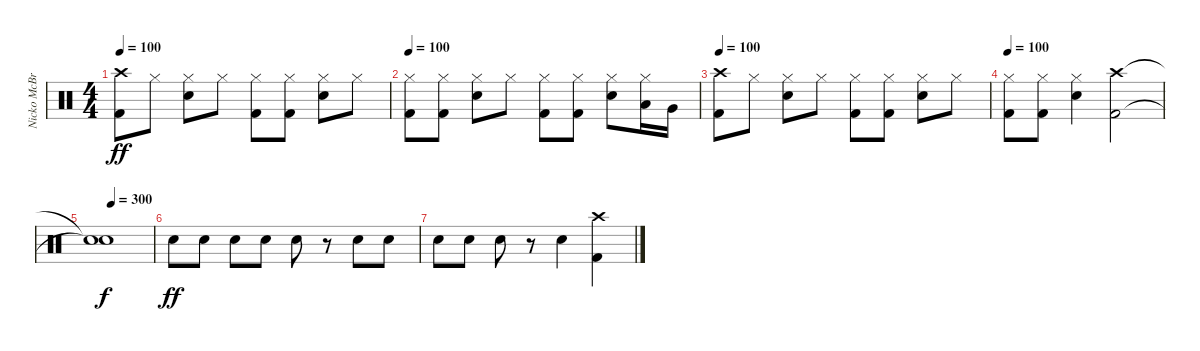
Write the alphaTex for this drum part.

\track ("Nicko McBrain" "Nicko McBr") {instrument percussion}
\staff {score}
\articulation defaults
\ts (4 4)
\tempo 100
\clef neutral
\ks c
("Kick (hit) 2" "Crash high (hit)").8{dy ff} "Hi-Hat (closed)".8 ("Snare (hit) 2" "Hi-Hat (closed)").8 "Hi-Hat (closed)".8 ("Kick (hit) 2" "Hi-Hat (closed)").8 ("Kick (hit) 2" "Hi-Hat (closed)").8 ("Snare (hit) 2" "Hi-Hat (closed)").8 "Hi-Hat (closed)".8 |
\tempo 100
("Kick (hit) 2" "Hi-Hat (closed)").8 ("Kick (hit) 2" "Hi-Hat (closed)").8 ("Snare (hit) 2" "Hi-Hat (closed)").8 "Hi-Hat (closed)".8 ("Kick (hit) 2" "Hi-Hat (closed)").8 ("Kick (hit) 2" "Hi-Hat (closed)").8 ("Snare (hit) 2" "Hi-Hat (closed)").8 ("Hi-Hat (closed)" "Low Tom (hit)").16 "Very Low Tom (hit)".16 |
\tempo 100
("Kick (hit) 2" "Crash high (hit)").8 "Hi-Hat (closed)".8 ("Snare (hit) 2" "Hi-Hat (closed)").8 "Hi-Hat (closed)".8 ("Kick (hit) 2" "Hi-Hat (closed)").8 ("Kick (hit) 2" "Hi-Hat (closed)").8 ("Snare (hit) 2" "Hi-Hat (closed)").8 "Hi-Hat (closed)".8 |
\tempo 100
("Kick (hit) 2" "Hi-Hat (closed)").8 ("Kick (hit) 2" "Hi-Hat (closed)").8 ("Snare (hit) 2" "Hi-Hat (closed)").4 ("Kick (hit) 2" "Crash high (hit)").2 |
\tempo (300 0.25)
("Snare (hit)"{t} "Snare (hit)"{t}).1{dy f} |
"Snare (hit) 2".8{dy ff} "Snare (hit) 2".8 "Snare (hit) 2".8 "Snare (hit) 2".8 "Snare (hit) 2".8 r.8 "Snare (hit) 2".8 "Snare (hit) 2".8 |
"Snare (hit) 2".8 "Snare (hit) 2".8 "Snare (hit) 2".8 r.8 "Snare (hit) 2".4 ("Kick (hit) 2" "Crash high (hit)").4
